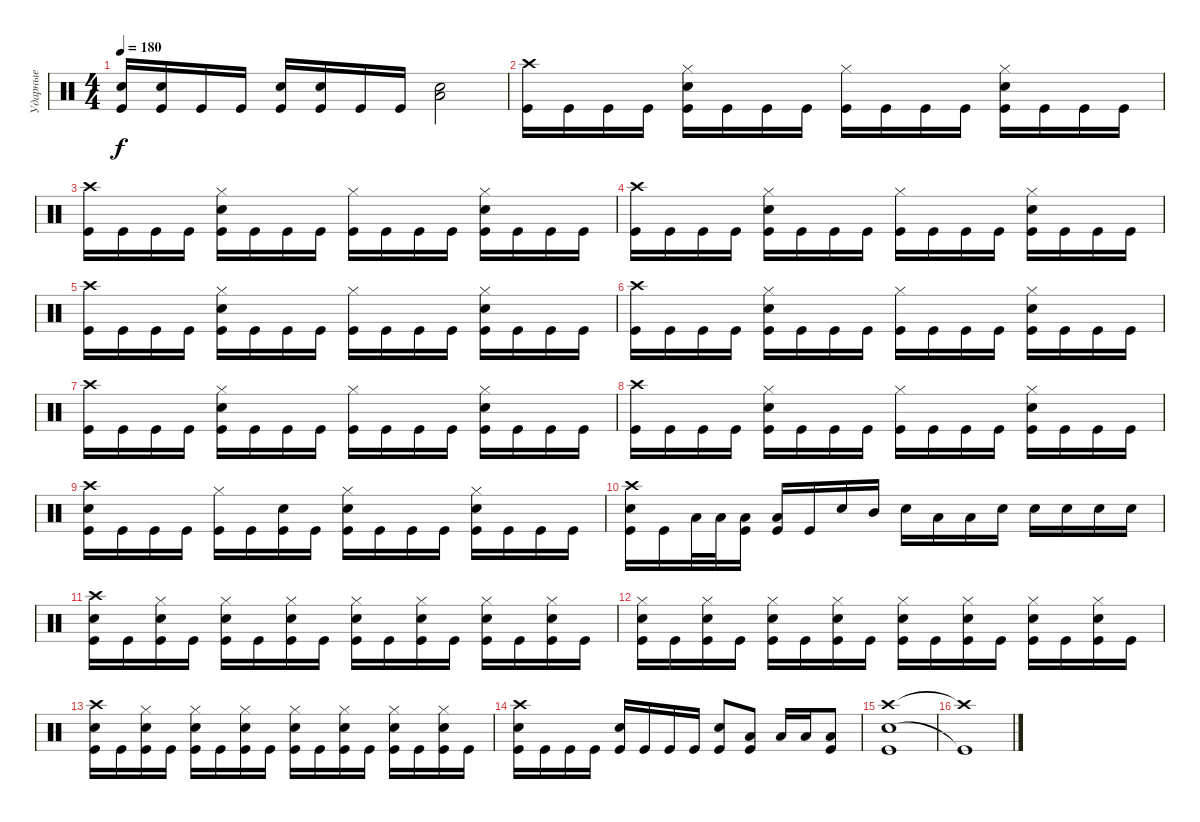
\track ("Ударные" "Ударные") {instrument percussion}
\staff {score}
\articulation defaults
\ts (4 4)
\tempo 180
\clef neutral
\ks c
("Electric Snare (hit)" "Kick (hit)").16{dy f} ("Electric Snare (hit)" "Kick (hit)").16 "Kick (hit)".16 "Kick (hit)".16 ("Electric Snare (hit)" "Kick (hit)").16 ("Electric Snare (hit)" "Kick (hit)").16 "Kick (hit)".16 "Kick (hit)".16 ("Electric Snare (hit)" "Low Tom (hit)").2 |
("Crash high (hit)" "Kick (hit)").16 "Kick (hit)".16 "Kick (hit)".16 "Kick (hit)".16 ("Hi-Hat (closed)" "Electric Snare (hit)" "Kick (hit)").16 "Kick (hit)".16 "Kick (hit)".16 "Kick (hit)".16 ("Hi-Hat (closed)" "Kick (hit)").16 "Kick (hit)".16 "Kick (hit)".16 "Kick (hit)".16 ("Hi-Hat (closed)" "Electric Snare (hit)" "Kick (hit)").16 "Kick (hit)".16 "Kick (hit)".16 "Kick (hit)".16 |
("Crash high (hit)" "Kick (hit)").16 "Kick (hit)".16 "Kick (hit)".16 "Kick (hit)".16 ("Hi-Hat (closed)" "Electric Snare (hit)" "Kick (hit)").16 "Kick (hit)".16 "Kick (hit)".16 "Kick (hit)".16 ("Hi-Hat (closed)" "Kick (hit)").16 "Kick (hit)".16 "Kick (hit)".16 "Kick (hit)".16 ("Hi-Hat (closed)" "Electric Snare (hit)" "Kick (hit)").16 "Kick (hit)".16 "Kick (hit)".16 "Kick (hit)".16 |
("Crash high (hit)" "Kick (hit)").16 "Kick (hit)".16 "Kick (hit)".16 "Kick (hit)".16 ("Hi-Hat (closed)" "Electric Snare (hit)" "Kick (hit)").16 "Kick (hit)".16 "Kick (hit)".16 "Kick (hit)".16 ("Hi-Hat (closed)" "Kick (hit)").16 "Kick (hit)".16 "Kick (hit)".16 "Kick (hit)".16 ("Hi-Hat (closed)" "Electric Snare (hit)" "Kick (hit)").16 "Kick (hit)".16 "Kick (hit)".16 "Kick (hit)".16 |
("Crash high (hit)" "Kick (hit)").16 "Kick (hit)".16 "Kick (hit)".16 "Kick (hit)".16 ("Hi-Hat (closed)" "Electric Snare (hit)" "Kick (hit)").16 "Kick (hit)".16 "Kick (hit)".16 "Kick (hit)".16 ("Hi-Hat (closed)" "Kick (hit)").16 "Kick (hit)".16 "Kick (hit)".16 "Kick (hit)".16 ("Hi-Hat (closed)" "Electric Snare (hit)" "Kick (hit)").16 "Kick (hit)".16 "Kick (hit)".16 "Kick (hit)".16 |
("Crash high (hit)" "Kick (hit)").16 "Kick (hit)".16 "Kick (hit)".16 "Kick (hit)".16 ("Hi-Hat (closed)" "Electric Snare (hit)" "Kick (hit)").16 "Kick (hit)".16 "Kick (hit)".16 "Kick (hit)".16 ("Hi-Hat (closed)" "Kick (hit)").16 "Kick (hit)".16 "Kick (hit)".16 "Kick (hit)".16 ("Hi-Hat (closed)" "Electric Snare (hit)" "Kick (hit)").16 "Kick (hit)".16 "Kick (hit)".16 "Kick (hit)".16 |
("Crash high (hit)" "Kick (hit)").16 "Kick (hit)".16 "Kick (hit)".16 "Kick (hit)".16 ("Hi-Hat (closed)" "Electric Snare (hit)" "Kick (hit)").16 "Kick (hit)".16 "Kick (hit)".16 "Kick (hit)".16 ("Hi-Hat (closed)" "Kick (hit)").16 "Kick (hit)".16 "Kick (hit)".16 "Kick (hit)".16 ("Hi-Hat (closed)" "Electric Snare (hit)" "Kick (hit)").16 "Kick (hit)".16 "Kick (hit)".16 "Kick (hit)".16 |
("Crash high (hit)" "Kick (hit)").16 "Kick (hit)".16 "Kick (hit)".16 "Kick (hit)".16 ("Hi-Hat (closed)" "Electric Snare (hit)" "Kick (hit)").16 "Kick (hit)".16 "Kick (hit)".16 "Kick (hit)".16 ("Hi-Hat (closed)" "Kick (hit)").16 "Kick (hit)".16 "Kick (hit)".16 "Kick (hit)".16 ("Hi-Hat (closed)" "Electric Snare (hit)" "Kick (hit)").16 "Kick (hit)".16 "Kick (hit)".16 "Kick (hit)".16 |
("Crash high (hit)" "Electric Snare (hit)" "Kick (hit)").16 "Kick (hit)".16 "Kick (hit)".16 "Kick (hit)".16 ("Hi-Hat (closed)" "Kick (hit)").16 "Kick (hit)".16 ("Electric Snare (hit)" "Kick (hit)").16 "Kick (hit)".16 ("Hi-Hat (closed)" "Electric Snare (hit)" "Kick (hit)").16 "Kick (hit)".16 "Kick (hit)".16 "Kick (hit)".16 ("Hi-Hat (closed)" "Electric Snare (hit)" "Kick (hit)").16 "Kick (hit)".16 "Kick (hit)".16 "Kick (hit)".16 |
("Crash high (hit)" "Electric Snare (hit)" "Kick (hit)").16 "Kick (hit)".16 "Low Tom (hit)".32 "Low Tom (hit)".32 ("Low Tom (hit)" "Kick (hit)").16 ("Low Tom (hit)" "Kick (hit)").16 "Kick (hit)".16 "Electric Snare (hit)".16 "Mid Tom (hit)".16 "Electric Snare (hit)".16 "Low Tom (hit)".16 "Low Tom (hit)".16 "Electric Snare (hit)".16 "Electric Snare (hit)".16 "Electric Snare (hit)".16 "Electric Snare (hit)".16 "Electric Snare (hit)".16 |
("Crash high (hit)" "Electric Snare (hit)" "Kick (hit)").16 "Kick (hit)".16 ("Hi-Hat (closed)" "Electric Snare (hit)" "Kick (hit)").16 "Kick (hit)".16 ("Hi-Hat (closed)" "Electric Snare (hit)" "Kick (hit)").16 "Kick (hit)".16 ("Hi-Hat (closed)" "Electric Snare (hit)" "Kick (hit)").16 "Kick (hit)".16 ("Hi-Hat (closed)" "Electric Snare (hit)" "Kick (hit)").16 "Kick (hit)".16 ("Hi-Hat (closed)" "Electric Snare (hit)" "Kick (hit)").16 "Kick (hit)".16 ("Hi-Hat (closed)" "Electric Snare (hit)" "Kick (hit)").16 "Kick (hit)".16 ("Hi-Hat (closed)" "Electric Snare (hit)" "Kick (hit)").16 "Kick (hit)".16 |
("Hi-Hat (closed)" "Electric Snare (hit)" "Kick (hit)").16 "Kick (hit)".16 ("Hi-Hat (closed)" "Electric Snare (hit)" "Kick (hit)").16 "Kick (hit)".16 ("Hi-Hat (closed)" "Electric Snare (hit)" "Kick (hit)").16 "Kick (hit)".16 ("Hi-Hat (closed)" "Electric Snare (hit)" "Kick (hit)").16 "Kick (hit)".16 ("Hi-Hat (closed)" "Electric Snare (hit)" "Kick (hit)").16 "Kick (hit)".16 ("Hi-Hat (closed)" "Electric Snare (hit)" "Kick (hit)").16 "Kick (hit)".16 ("Hi-Hat (closed)" "Electric Snare (hit)" "Kick (hit)").16 "Kick (hit)".16 ("Hi-Hat (closed)" "Electric Snare (hit)" "Kick (hit)").16 "Kick (hit)".16 |
("Crash high (hit)" "Electric Snare (hit)" "Kick (hit)").16 "Kick (hit)".16 ("Hi-Hat (closed)" "Electric Snare (hit)" "Kick (hit)").16 "Kick (hit)".16 ("Hi-Hat (closed)" "Electric Snare (hit)" "Kick (hit)").16 "Kick (hit)".16 ("Hi-Hat (closed)" "Electric Snare (hit)" "Kick (hit)").16 "Kick (hit)".16 ("Hi-Hat (closed)" "Electric Snare (hit)" "Kick (hit)").16 "Kick (hit)".16 ("Hi-Hat (closed)" "Electric Snare (hit)" "Kick (hit)").16 "Kick (hit)".16 ("Hi-Hat (closed)" "Electric Snare (hit)" "Kick (hit)").16 "Kick (hit)".16 ("Hi-Hat (closed)" "Electric Snare (hit)" "Kick (hit)").16 "Kick (hit)".16 |
("Crash high (hit)" "Electric Snare (hit)" "Kick (hit)").16 "Kick (hit)".16 "Kick (hit)".16 "Kick (hit)".16 ("Electric Snare (hit)" "Kick (hit)").16 "Kick (hit)".16 "Kick (hit)".16 "Kick (hit)".16 ("Electric Snare (hit)" "Kick (hit)").8 ("Low Tom (hit)" "Kick (hit)").8 "Low Tom (hit)".16 "Low Tom (hit)".16 ("Low Tom (hit)" "Kick (hit)").8 |
("Crash high (hit)" "Electric Snare (hit)" "Kick (hit)").1 |
("Crash high (hit)"{t} "Kick (hit)"{t}).1
